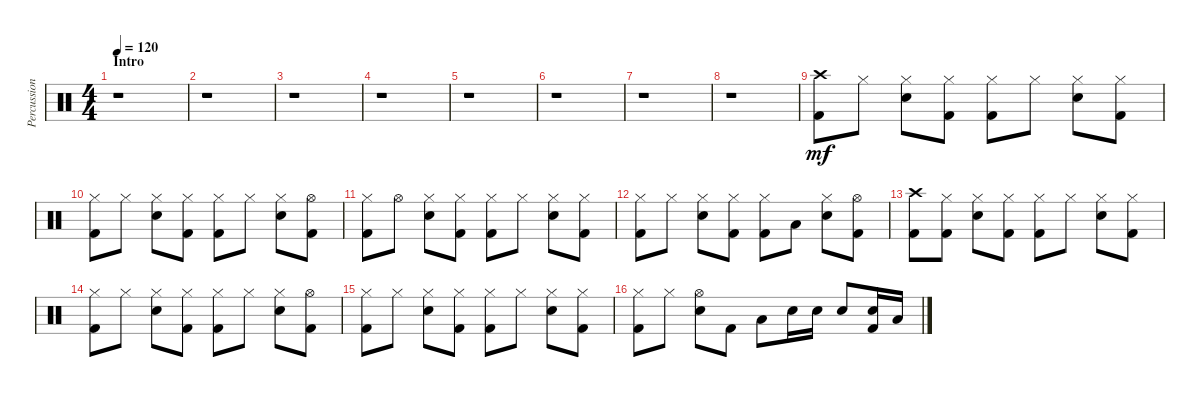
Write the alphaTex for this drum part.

\track ("Percussion" "Percussion") {instrument percussion}
\staff {score}
\articulation defaults
\ts (4 4)
\section ("" "Intro")
\tempo 120
\clef neutral
\ks c
r.1{dy mf} |
r.1 |
r.1 |
r.1 |
r.1 |
r.1 |
r.1 |
r.1 |
("Kick (hit) 2" "Crash high (hit)").8 "Hi-Hat (closed)".8 ("Hi-Hat (closed)" "Snare (hit) 2").8 ("Hi-Hat (closed)" "Kick (hit) 2").8 ("Kick (hit) 2" "Hi-Hat (closed)").8 "Hi-Hat (closed)".8 ("Snare (hit) 2" "Hi-Hat (closed)").8 ("Kick (hit) 2" "Hi-Hat (closed)").8 |
("Kick (hit) 2" "Hi-Hat (closed)").8 "Hi-Hat (closed)".8 ("Hi-Hat (closed)" "Snare (hit) 2").8 ("Hi-Hat (closed)" "Kick (hit) 2").8 ("Kick (hit) 2" "Hi-Hat (closed)").8 "Hi-Hat (closed)".8 ("Snare (hit) 2" "Hi-Hat (closed)").8 ("Hi-Hat (open)" "Kick (hit) 2").8 |
("Kick (hit) 2" "Hi-Hat (closed)").8 "Hi-Hat (open)".8 ("Hi-Hat (closed)" "Snare (hit) 2").8 ("Hi-Hat (closed)" "Kick (hit) 2").8 ("Kick (hit) 2" "Hi-Hat (closed)").8 "Hi-Hat (closed)".8 ("Snare (hit) 2" "Hi-Hat (closed)").8 ("Kick (hit) 2" "Hi-Hat (closed)").8 |
("Kick (hit) 2" "Hi-Hat (closed)").8 "Hi-Hat (closed)".8 ("Hi-Hat (closed)" "Snare (hit) 2").8 ("Hi-Hat (closed)" "Kick (hit) 2").8 ("Kick (hit) 2" "Hi-Hat (closed)").8 "Low Floor Tom (hit)".8 ("Snare (hit) 2" "Hi-Hat (closed)").8 ("Hi-Hat (open)" "Kick (hit) 2").8 |
("Kick (hit) 2" "Crash high (hit)").8 ("Hi-Hat (closed)" "Kick (hit) 2").8 ("Hi-Hat (closed)" "Snare (hit) 2").8 ("Hi-Hat (closed)" "Kick (hit) 2").8 ("Kick (hit) 2" "Hi-Hat (closed)").8 "Hi-Hat (closed)".8 ("Snare (hit) 2" "Hi-Hat (closed)").8 ("Kick (hit) 2" "Hi-Hat (closed)").8 |
("Kick (hit) 2" "Hi-Hat (closed)").8 "Hi-Hat (closed)".8 ("Hi-Hat (closed)" "Snare (hit) 2").8 ("Hi-Hat (closed)" "Kick (hit) 2").8 ("Kick (hit) 2" "Hi-Hat (closed)").8 "Hi-Hat (closed)".8 ("Snare (hit) 2" "Hi-Hat (closed)").8 ("Hi-Hat (open)" "Kick (hit) 2").8 |
("Kick (hit) 2" "Hi-Hat (closed)").8 "Hi-Hat (closed)".8 ("Hi-Hat (closed)" "Snare (hit) 2").8 ("Hi-Hat (closed)" "Kick (hit) 2").8 ("Kick (hit) 2" "Hi-Hat (closed)").8 "Hi-Hat (closed)".8 ("Snare (hit) 2" "Hi-Hat (closed)").8 ("Kick (hit) 2" "Hi-Hat (closed)").8 |
("Kick (hit) 2" "Hi-Hat (closed)").8 "Hi-Hat (closed)".8 ("Hi-Hat (open)" "Snare (hit) 2").8 "Kick (hit) 2".8 "Low Tom (hit)".8 "Snare (hit) 2".16 "Snare (hit) 2".16 "Snare (hit) 2".8 ("Snare (hit) 2" "Kick (hit) 2").16 "Low Floor Tom (hit)".16
